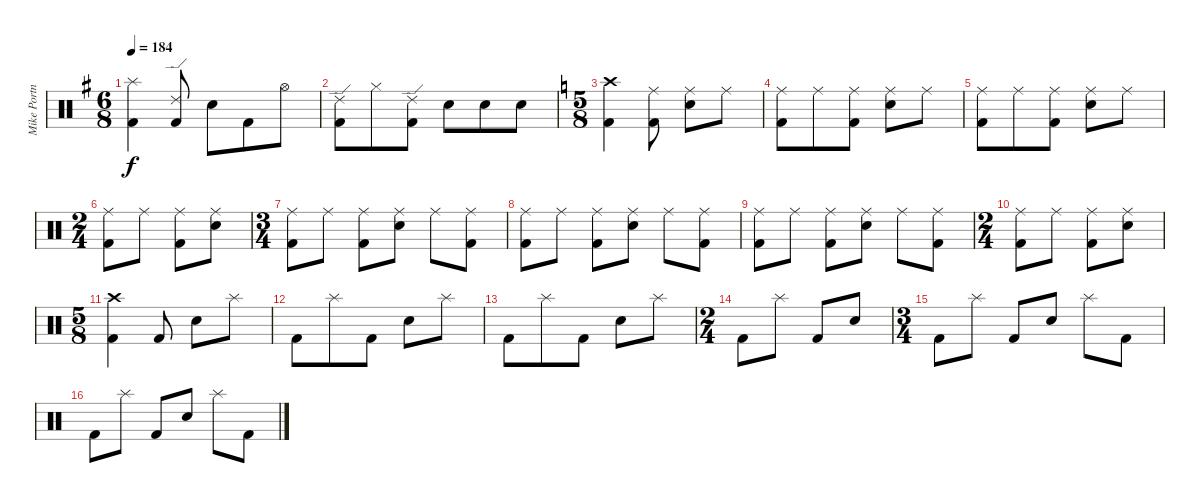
\track ("Mike Portnoy - Drum" "Mike Portn") {instrument percussion}
\staff {score}
\articulation defaults
\ts (6 8)
\tempo 184
\clef neutral
\ks g
("Splash (hit)" "Kick (hit) 2").4{dy f} ("Ride (edge) 2" "Kick (hit) 2").8 "Electric Snare (hit)".8 "Kick (hit) 2".8 "Hi-Hat (open)".8 |
("Ride (edge) 2" "Kick (hit) 2").8 "Hi-Hat (closed)".8 ("Ride (edge) 2" "Kick (hit) 2").8 "Electric Snare (hit)".8 "Electric Snare (hit)".8 "Electric Snare (hit)".8 |
\ts (5 8)
\ks c
("Crash high (hit)" "Kick (hit) 2").4 ("Ride (middle)" "Kick (hit) 2").8 ("Ride (middle)" "Electric Snare (hit)").8 "Ride (middle)".8 |
("Ride (middle)" "Kick (hit) 2").8 "Ride (middle)".8 ("Ride (middle)" "Kick (hit) 2").8 ("Ride (middle)" "Electric Snare (hit)").8 "Ride (middle)".8 |
("Ride (middle)" "Kick (hit) 2").8 "Ride (middle)".8 ("Ride (middle)" "Kick (hit) 2").8 ("Ride (middle)" "Electric Snare (hit)").8 "Ride (middle)".8 |
\ts (2 4)
("Ride (middle)" "Kick (hit) 2").8 "Ride (middle)".8 ("Ride (middle)" "Kick (hit) 2").8 ("Ride (middle)" "Electric Snare (hit)").8 |
\ts (3 4)
("Ride (middle)" "Kick (hit) 2").8 "Ride (middle)".8 ("Ride (middle)" "Kick (hit) 2").8 ("Ride (middle)" "Electric Snare (hit)").8 "Ride (middle)".8 ("Ride (middle)" "Kick (hit) 2").8 |
("Ride (middle)" "Kick (hit) 2").8 "Ride (middle)".8 ("Ride (middle)" "Kick (hit) 2").8 ("Ride (middle)" "Electric Snare (hit)").8 "Ride (middle)".8 ("Ride (middle)" "Kick (hit) 2").8 |
("Ride (middle)" "Kick (hit) 2").8 "Ride (middle)".8 ("Ride (middle)" "Kick (hit) 2").8 ("Ride (middle)" "Electric Snare (hit)").8 "Ride (middle)".8 ("Ride (middle)" "Kick (hit) 2").8 |
\ts (2 4)
("Ride (middle)" "Kick (hit) 2").8 "Ride (middle)".8 ("Ride (middle)" "Kick (hit) 2").8 ("Ride (middle)" "Electric Snare (hit)").8 |
\ts (5 8)
("Crash high (hit)" "Kick (hit) 2").4 "Kick (hit) 2".8 "Electric Snare (hit)".8 "Splash (hit)".8 |
"Kick (hit) 2".8 "Splash (hit)".8 "Kick (hit) 2".8 "Electric Snare (hit)".8 "Splash (hit)".8 |
"Kick (hit) 2".8 "Splash (hit)".8 "Kick (hit) 2".8 "Electric Snare (hit)".8 "Splash (hit)".8 |
\ts (2 4)
"Kick (hit) 2".8 "Splash (hit)".8 "Kick (hit) 2".8 "Electric Snare (hit)".8 |
\ts (3 4)
"Kick (hit) 2".8 "Splash (hit)".8 "Kick (hit) 2".8 "Electric Snare (hit)".8 "Splash (hit)".8 "Kick (hit) 2".8 |
"Kick (hit) 2".8 "Splash (hit)".8 "Kick (hit) 2".8 "Electric Snare (hit)".8 "Splash (hit)".8 "Kick (hit) 2".8
